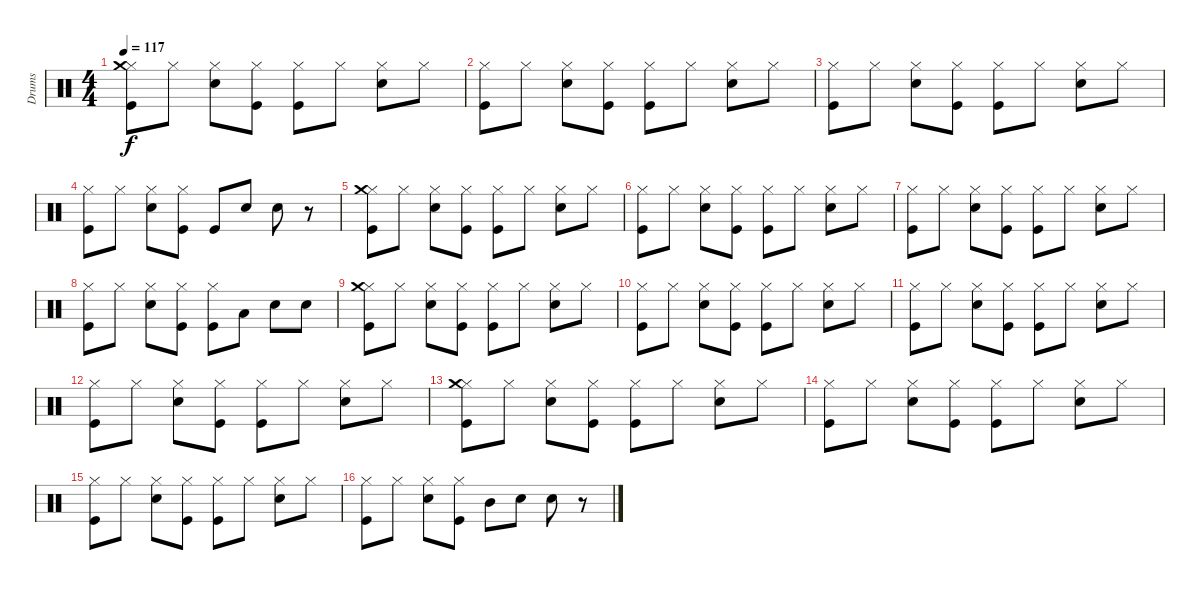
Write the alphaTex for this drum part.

\track ("Drums" "Drums") {instrument percussion}
\staff {score}
\articulation defaults
\ts (4 4)
\tempo 117
\clef neutral
\ks c
("Kick (hit)" "Hi-Hat (closed)" "Crash medium (hit)").8{dy f} "Hi-Hat (closed)".8 ("Snare (hit) 2" "Hi-Hat (closed)").8 ("Kick (hit)" "Hi-Hat (closed)").8 ("Hi-Hat (closed)" "Kick (hit)").8 "Hi-Hat (closed)".8 ("Snare (hit) 2" "Hi-Hat (closed)").8 "Hi-Hat (closed)".8 |
("Kick (hit)" "Hi-Hat (closed)").8 "Hi-Hat (closed)".8 ("Snare (hit) 2" "Hi-Hat (closed)").8 ("Kick (hit)" "Hi-Hat (closed)").8 ("Hi-Hat (closed)" "Kick (hit)").8 "Hi-Hat (closed)".8 ("Snare (hit) 2" "Hi-Hat (closed)").8 "Hi-Hat (closed)".8 |
("Kick (hit)" "Hi-Hat (closed)").8 "Hi-Hat (closed)".8 ("Snare (hit) 2" "Hi-Hat (closed)").8 ("Kick (hit)" "Hi-Hat (closed)").8 ("Hi-Hat (closed)" "Kick (hit)").8 "Hi-Hat (closed)".8 ("Snare (hit) 2" "Hi-Hat (closed)").8 "Hi-Hat (closed)".8 |
("Kick (hit)" "Hi-Hat (closed)").8 "Hi-Hat (closed)".8 ("Snare (hit) 2" "Hi-Hat (closed)").8 ("Kick (hit)" "Hi-Hat (closed)").8 "Kick (hit)".8 "Snare (hit) 2".8 "Snare (hit) 2".8 r.8 |
("Kick (hit)" "Hi-Hat (closed)" "Crash medium (hit)").8 "Hi-Hat (closed)".8 ("Snare (hit) 2" "Hi-Hat (closed)").8 ("Kick (hit)" "Hi-Hat (closed)").8 ("Hi-Hat (closed)" "Kick (hit)").8 "Hi-Hat (closed)".8 ("Snare (hit) 2" "Hi-Hat (closed)").8 "Hi-Hat (closed)".8 |
("Kick (hit)" "Hi-Hat (closed)").8 "Hi-Hat (closed)".8 ("Snare (hit) 2" "Hi-Hat (closed)").8 ("Kick (hit)" "Hi-Hat (closed)").8 ("Hi-Hat (closed)" "Kick (hit)").8 "Hi-Hat (closed)".8 ("Snare (hit) 2" "Hi-Hat (closed)").8 "Hi-Hat (closed)".8 |
("Kick (hit)" "Hi-Hat (closed)").8 "Hi-Hat (closed)".8 ("Snare (hit) 2" "Hi-Hat (closed)").8 ("Kick (hit)" "Hi-Hat (closed)").8 ("Hi-Hat (closed)" "Kick (hit)").8 "Hi-Hat (closed)".8 ("Snare (hit) 2" "Hi-Hat (closed)").8 "Hi-Hat (closed)".8 |
("Kick (hit)" "Hi-Hat (closed)").8 "Hi-Hat (closed)".8 ("Snare (hit) 2" "Hi-Hat (closed)").8 ("Kick (hit)" "Hi-Hat (closed)").8 ("Hi-Hat (closed)" "Kick (hit)").8 "Low Tom (hit)".8 "Electric Snare (hit)".8 "Electric Snare (hit)".8 |
("Kick (hit)" "Hi-Hat (closed)" "Crash medium (hit)").8 "Hi-Hat (closed)".8 ("Snare (hit) 2" "Hi-Hat (closed)").8 ("Kick (hit)" "Hi-Hat (closed)").8 ("Hi-Hat (closed)" "Kick (hit)").8 "Hi-Hat (closed)".8 ("Snare (hit) 2" "Hi-Hat (closed)").8 "Hi-Hat (closed)".8 |
("Kick (hit)" "Hi-Hat (closed)").8 "Hi-Hat (closed)".8 ("Snare (hit) 2" "Hi-Hat (closed)").8 ("Kick (hit)" "Hi-Hat (closed)").8 ("Hi-Hat (closed)" "Kick (hit)").8 "Hi-Hat (closed)".8 ("Snare (hit) 2" "Hi-Hat (closed)").8 "Hi-Hat (closed)".8 |
("Kick (hit)" "Hi-Hat (closed)").8 "Hi-Hat (closed)".8 ("Snare (hit) 2" "Hi-Hat (closed)").8 ("Kick (hit)" "Hi-Hat (closed)").8 ("Hi-Hat (closed)" "Kick (hit)").8 "Hi-Hat (closed)".8 ("Snare (hit) 2" "Hi-Hat (closed)").8 "Hi-Hat (closed)".8 |
("Kick (hit)" "Hi-Hat (closed)").8 "Hi-Hat (closed)".8 ("Snare (hit) 2" "Hi-Hat (closed)").8 ("Kick (hit)" "Hi-Hat (closed)").8 ("Hi-Hat (closed)" "Kick (hit)").8 "Hi-Hat (closed)".8 ("Snare (hit) 2" "Hi-Hat (closed)").8 "Hi-Hat (closed)".8 |
("Kick (hit)" "Hi-Hat (closed)" "Crash medium (hit)").8 "Hi-Hat (closed)".8 ("Snare (hit) 2" "Hi-Hat (closed)").8 ("Kick (hit)" "Hi-Hat (closed)").8 ("Hi-Hat (closed)" "Kick (hit)").8 "Hi-Hat (closed)".8 ("Snare (hit) 2" "Hi-Hat (closed)").8 "Hi-Hat (closed)".8 |
("Kick (hit)" "Hi-Hat (closed)").8 "Hi-Hat (closed)".8 ("Snare (hit) 2" "Hi-Hat (closed)").8 ("Kick (hit)" "Hi-Hat (closed)").8 ("Hi-Hat (closed)" "Kick (hit)").8 "Hi-Hat (closed)".8 ("Snare (hit) 2" "Hi-Hat (closed)").8 "Hi-Hat (closed)".8 |
("Kick (hit)" "Hi-Hat (closed)").8 "Hi-Hat (closed)".8 ("Snare (hit) 2" "Hi-Hat (closed)").8 ("Kick (hit)" "Hi-Hat (closed)").8 ("Hi-Hat (closed)" "Kick (hit)").8 "Hi-Hat (closed)".8 ("Snare (hit) 2" "Hi-Hat (closed)").8 "Hi-Hat (closed)".8 |
("Kick (hit)" "Hi-Hat (closed)").8 "Hi-Hat (closed)".8 ("Snare (hit) 2" "Hi-Hat (closed)").8 ("Kick (hit)" "Hi-Hat (closed)").8 "Mid Tom (hit)".8 "Snare (hit) 2".8 "Snare (hit) 2".8 r.8
